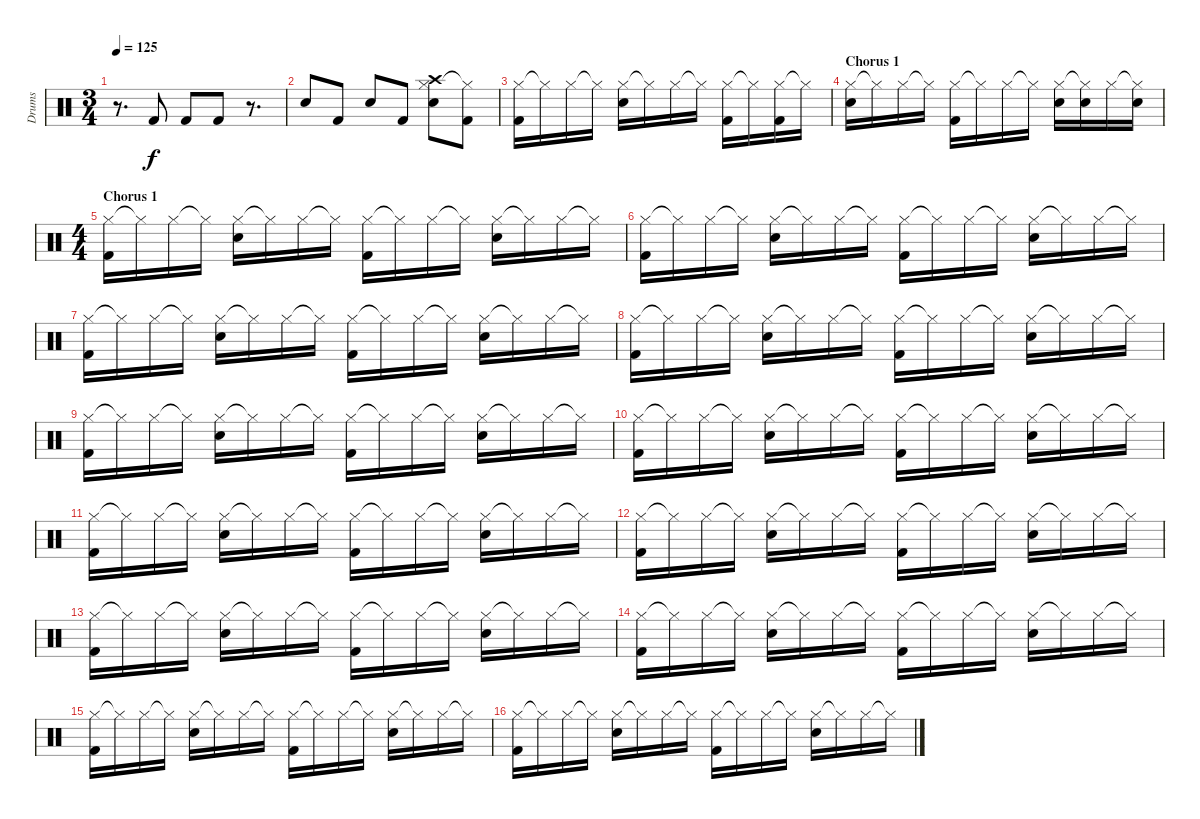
\track ("Drums" "Drums") {instrument percussion}
\staff {score}
\articulation defaults
\ts (3 4)
\tempo 125
\clef neutral
\ks c
r.8{d dy f} "Kick (hit) 2".8 "Kick (hit) 2".8 "Kick (hit) 2".8 r.8{d} |
"Snare (hit) 2".8 "Kick (hit) 2".8 "Snare (hit) 2".8 "Kick (hit) 2".8 ("Hi-Hat (closed)" "Snare (hit) 2" "Crash high (hit)").8 ("Hi-Hat (closed)"{t} "Kick (hit) 2").8 |
("Hi-Hat (closed)" "Kick (hit) 2").16 "Hi-Hat (closed)"{t}.16 "Hi-Hat (closed)".16 "Hi-Hat (closed)"{t}.16 ("Hi-Hat (closed)" "Snare (hit) 2").16 "Hi-Hat (closed)"{t}.16 "Hi-Hat (closed)".16 "Hi-Hat (closed)"{t}.16 ("Hi-Hat (closed)" "Kick (hit) 2").16 "Hi-Hat (closed)"{t}.16 ("Hi-Hat (closed)" "Kick (hit) 2").16 "Hi-Hat (closed)"{t}.16 |
\section ("" "Chorus 1")
("Hi-Hat (closed)" "Snare (hit) 2").16 "Hi-Hat (closed)"{t}.16 "Hi-Hat (closed)".16 "Hi-Hat (closed)"{t}.16 ("Hi-Hat (closed)" "Kick (hit) 2").16 "Hi-Hat (closed)"{t}.16 "Hi-Hat (closed)".16 "Hi-Hat (closed)"{t}.16 ("Hi-Hat (closed)" "Snare (hit) 2").16 ("Hi-Hat (closed)"{t} "Snare (hit) 2").16 "Hi-Hat (closed)".16 ("Hi-Hat (closed)"{t} "Snare (hit) 2").16 |
\ts (4 4)
\section ("" "Chorus 1")
("Hi-Hat (closed)" "Kick (hit) 2").16 "Hi-Hat (closed)"{t}.16 "Hi-Hat (closed)".16 "Hi-Hat (closed)"{t}.16 ("Hi-Hat (closed)" "Snare (hit) 2").16 "Hi-Hat (closed)"{t}.16 "Hi-Hat (closed)".16 "Hi-Hat (closed)"{t}.16 ("Hi-Hat (closed)" "Kick (hit) 2").16 "Hi-Hat (closed)"{t}.16 "Hi-Hat (closed)".16 "Hi-Hat (closed)"{t}.16 ("Hi-Hat (closed)" "Snare (hit) 2").16 "Hi-Hat (closed)"{t}.16 "Hi-Hat (closed)".16 "Hi-Hat (closed)"{t}.16 |
("Hi-Hat (closed)" "Kick (hit) 2").16 "Hi-Hat (closed)"{t}.16 "Hi-Hat (closed)".16 "Hi-Hat (closed)"{t}.16 ("Hi-Hat (closed)" "Snare (hit) 2").16 "Hi-Hat (closed)"{t}.16 "Hi-Hat (closed)".16 "Hi-Hat (closed)"{t}.16 ("Hi-Hat (closed)" "Kick (hit) 2").16 "Hi-Hat (closed)"{t}.16 "Hi-Hat (closed)".16 "Hi-Hat (closed)"{t}.16 ("Hi-Hat (closed)" "Snare (hit) 2").16 "Hi-Hat (closed)"{t}.16 "Hi-Hat (closed)".16 "Hi-Hat (closed)"{t}.16 |
("Hi-Hat (closed)" "Kick (hit) 2").16 "Hi-Hat (closed)"{t}.16 "Hi-Hat (closed)".16 "Hi-Hat (closed)"{t}.16 ("Hi-Hat (closed)" "Snare (hit) 2").16 "Hi-Hat (closed)"{t}.16 "Hi-Hat (closed)".16 "Hi-Hat (closed)"{t}.16 ("Hi-Hat (closed)" "Kick (hit) 2").16 "Hi-Hat (closed)"{t}.16 "Hi-Hat (closed)".16 "Hi-Hat (closed)"{t}.16 ("Hi-Hat (closed)" "Snare (hit) 2").16 "Hi-Hat (closed)"{t}.16 "Hi-Hat (closed)".16 "Hi-Hat (closed)"{t}.16 |
("Hi-Hat (closed)" "Kick (hit) 2").16 "Hi-Hat (closed)"{t}.16 "Hi-Hat (closed)".16 "Hi-Hat (closed)"{t}.16 ("Hi-Hat (closed)" "Snare (hit) 2").16 "Hi-Hat (closed)"{t}.16 "Hi-Hat (closed)".16 "Hi-Hat (closed)"{t}.16 ("Hi-Hat (closed)" "Kick (hit) 2").16 "Hi-Hat (closed)"{t}.16 "Hi-Hat (closed)".16 "Hi-Hat (closed)"{t}.16 ("Hi-Hat (closed)" "Snare (hit) 2").16 "Hi-Hat (closed)"{t}.16 "Hi-Hat (closed)".16 "Hi-Hat (closed)"{t}.16 |
("Hi-Hat (closed)" "Kick (hit) 2").16 "Hi-Hat (closed)"{t}.16 "Hi-Hat (closed)".16 "Hi-Hat (closed)"{t}.16 ("Hi-Hat (closed)" "Snare (hit) 2").16 "Hi-Hat (closed)"{t}.16 "Hi-Hat (closed)".16 "Hi-Hat (closed)"{t}.16 ("Hi-Hat (closed)" "Kick (hit) 2").16 "Hi-Hat (closed)"{t}.16 "Hi-Hat (closed)".16 "Hi-Hat (closed)"{t}.16 ("Hi-Hat (closed)" "Snare (hit) 2").16 "Hi-Hat (closed)"{t}.16 "Hi-Hat (closed)".16 "Hi-Hat (closed)"{t}.16 |
("Hi-Hat (closed)" "Kick (hit) 2").16 "Hi-Hat (closed)"{t}.16 "Hi-Hat (closed)".16 "Hi-Hat (closed)"{t}.16 ("Hi-Hat (closed)" "Snare (hit) 2").16 "Hi-Hat (closed)"{t}.16 "Hi-Hat (closed)".16 "Hi-Hat (closed)"{t}.16 ("Hi-Hat (closed)" "Kick (hit) 2").16 "Hi-Hat (closed)"{t}.16 "Hi-Hat (closed)".16 "Hi-Hat (closed)"{t}.16 ("Hi-Hat (closed)" "Snare (hit) 2").16 "Hi-Hat (closed)"{t}.16 "Hi-Hat (closed)".16 "Hi-Hat (closed)"{t}.16 |
("Hi-Hat (closed)" "Kick (hit) 2").16 "Hi-Hat (closed)"{t}.16 "Hi-Hat (closed)".16 "Hi-Hat (closed)"{t}.16 ("Hi-Hat (closed)" "Snare (hit) 2").16 "Hi-Hat (closed)"{t}.16 "Hi-Hat (closed)".16 "Hi-Hat (closed)"{t}.16 ("Hi-Hat (closed)" "Kick (hit) 2").16 "Hi-Hat (closed)"{t}.16 "Hi-Hat (closed)".16 "Hi-Hat (closed)"{t}.16 ("Hi-Hat (closed)" "Snare (hit) 2").16 "Hi-Hat (closed)"{t}.16 "Hi-Hat (closed)".16 "Hi-Hat (closed)"{t}.16 |
("Hi-Hat (closed)" "Kick (hit) 2").16 "Hi-Hat (closed)"{t}.16 "Hi-Hat (closed)".16 "Hi-Hat (closed)"{t}.16 ("Hi-Hat (closed)" "Snare (hit) 2").16 "Hi-Hat (closed)"{t}.16 "Hi-Hat (closed)".16 "Hi-Hat (closed)"{t}.16 ("Hi-Hat (closed)" "Kick (hit) 2").16 "Hi-Hat (closed)"{t}.16 "Hi-Hat (closed)".16 "Hi-Hat (closed)"{t}.16 ("Hi-Hat (closed)" "Snare (hit) 2").16 "Hi-Hat (closed)"{t}.16 "Hi-Hat (closed)".16 "Hi-Hat (closed)"{t}.16 |
("Hi-Hat (closed)" "Kick (hit) 2").16 "Hi-Hat (closed)"{t}.16 "Hi-Hat (closed)".16 "Hi-Hat (closed)"{t}.16 ("Hi-Hat (closed)" "Snare (hit) 2").16 "Hi-Hat (closed)"{t}.16 "Hi-Hat (closed)".16 "Hi-Hat (closed)"{t}.16 ("Hi-Hat (closed)" "Kick (hit) 2").16 "Hi-Hat (closed)"{t}.16 "Hi-Hat (closed)".16 "Hi-Hat (closed)"{t}.16 ("Hi-Hat (closed)" "Snare (hit) 2").16 "Hi-Hat (closed)"{t}.16 "Hi-Hat (closed)".16 "Hi-Hat (closed)"{t}.16 |
("Hi-Hat (closed)" "Kick (hit) 2").16 "Hi-Hat (closed)"{t}.16 "Hi-Hat (closed)".16 "Hi-Hat (closed)"{t}.16 ("Hi-Hat (closed)" "Snare (hit) 2").16 "Hi-Hat (closed)"{t}.16 "Hi-Hat (closed)".16 "Hi-Hat (closed)"{t}.16 ("Hi-Hat (closed)" "Kick (hit) 2").16 "Hi-Hat (closed)"{t}.16 "Hi-Hat (closed)".16 "Hi-Hat (closed)"{t}.16 ("Hi-Hat (closed)" "Snare (hit) 2").16 "Hi-Hat (closed)"{t}.16 "Hi-Hat (closed)".16 "Hi-Hat (closed)"{t}.16 |
("Hi-Hat (closed)" "Kick (hit) 2").16 "Hi-Hat (closed)"{t}.16 "Hi-Hat (closed)".16 "Hi-Hat (closed)"{t}.16 ("Hi-Hat (closed)" "Snare (hit) 2").16 "Hi-Hat (closed)"{t}.16 "Hi-Hat (closed)".16 "Hi-Hat (closed)"{t}.16 ("Hi-Hat (closed)" "Kick (hit) 2").16 "Hi-Hat (closed)"{t}.16 "Hi-Hat (closed)".16 "Hi-Hat (closed)"{t}.16 ("Hi-Hat (closed)" "Snare (hit) 2").16 "Hi-Hat (closed)"{t}.16 "Hi-Hat (closed)".16 "Hi-Hat (closed)"{t}.16 |
("Hi-Hat (closed)" "Kick (hit) 2").16 "Hi-Hat (closed)"{t}.16 "Hi-Hat (closed)".16 "Hi-Hat (closed)"{t}.16 ("Hi-Hat (closed)" "Snare (hit) 2").16 "Hi-Hat (closed)"{t}.16 "Hi-Hat (closed)".16 "Hi-Hat (closed)"{t}.16 ("Hi-Hat (closed)" "Kick (hit) 2").16 "Hi-Hat (closed)"{t}.16 "Hi-Hat (closed)".16 "Hi-Hat (closed)"{t}.16 ("Hi-Hat (closed)" "Snare (hit) 2").16 "Hi-Hat (closed)"{t}.16 "Hi-Hat (closed)".16 "Hi-Hat (closed)"{t}.16
